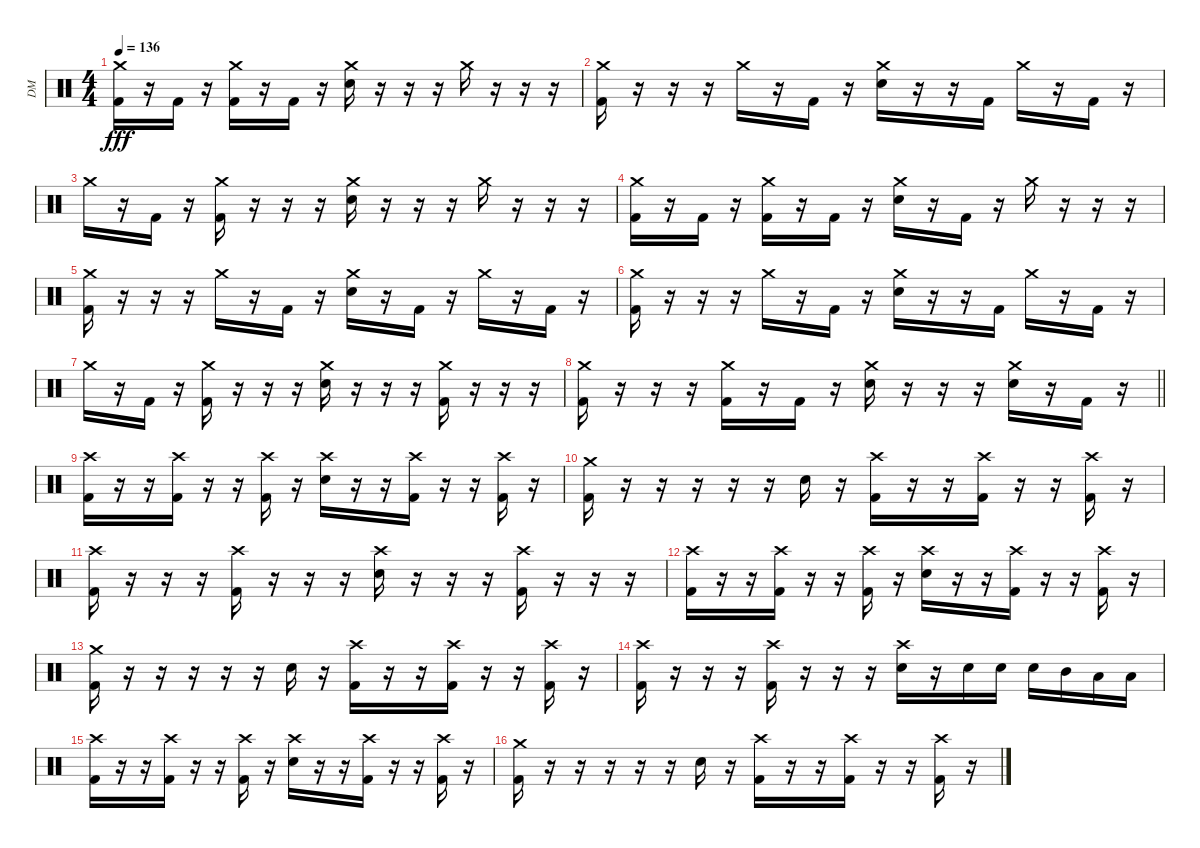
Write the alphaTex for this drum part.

\track ("DM" "DM") {instrument percussion}
\staff {score}
\articulation defaults
\ts (4 4)
\tempo 136
\clef neutral
\ks c
("Crash medium (hit)" "Kick (hit) 2").16{dy fff} r.16 "Kick (hit) 2".16 r.16 ("Crash medium (hit)" "Kick (hit) 2").16 r.16 "Kick (hit) 2".16 r.16 ("Crash medium (hit)" "Electric Snare (hit)").16 r.16 r.16 r.16 "Crash medium (hit)".16 r.16 r.16 r.16 |
("Crash medium (hit)" "Kick (hit) 2").16 r.16 r.16 r.16 "Crash medium (hit)".16 r.16 "Kick (hit) 2".16 r.16 ("Crash medium (hit)" "Electric Snare (hit)").16 r.16 r.16 "Kick (hit) 2".16 "Crash medium (hit)".16 r.16 "Kick (hit) 2".16 r.16 |
"Crash medium (hit)".16 r.16 "Kick (hit) 2".16 r.16 ("Crash medium (hit)" "Kick (hit) 2").16 r.16 r.16 r.16 ("Crash medium (hit)" "Electric Snare (hit)").16 r.16 r.16 r.16 "Crash medium (hit)".16 r.16 r.16 r.16 |
("Crash medium (hit)" "Kick (hit) 2").16 r.16 "Kick (hit) 2".16 r.16 ("Crash medium (hit)" "Kick (hit) 2").16 r.16 "Kick (hit) 2".16 r.16 ("Crash medium (hit)" "Electric Snare (hit)").16 r.16 "Kick (hit) 2".16 r.16 "Crash medium (hit)".16 r.16 r.16 r.16 |
("Crash medium (hit)" "Kick (hit) 2").16 r.16 r.16 r.16 "Crash medium (hit)".16 r.16 "Kick (hit) 2".16 r.16 ("Crash medium (hit)" "Electric Snare (hit)").16 r.16 "Kick (hit) 2".16 r.16 "Crash medium (hit)".16 r.16 "Kick (hit) 2".16 r.16 |
("Crash medium (hit)" "Kick (hit) 2").16 r.16 r.16 r.16 "Crash medium (hit)".16 r.16 "Kick (hit) 2".16 r.16 ("Crash medium (hit)" "Electric Snare (hit)").16 r.16 r.16 "Kick (hit) 2".16 "Crash medium (hit)".16 r.16 "Kick (hit) 2".16 r.16 |
"Crash medium (hit)".16 r.16 "Kick (hit) 2".16 r.16 ("Crash medium (hit)" "Kick (hit) 2").16 r.16 r.16 r.16 ("Crash medium (hit)" "Electric Snare (hit)").16 r.16 r.16 r.16 ("Crash medium (hit)" "Kick (hit) 2").16 r.16 r.16 r.16 |
\barLineRight lightlight
("Crash medium (hit)" "Kick (hit) 2").16 r.16 r.16 r.16 ("Crash medium (hit)" "Kick (hit) 2").16 r.16 "Kick (hit) 2".16 r.16 ("Crash medium (hit)" "Electric Snare (hit)").16 r.16 r.16 r.16 ("Crash medium (hit)" "Electric Snare (hit)").16 r.16 "Kick (hit) 2".16 r.16 |
\section ("" "")
("Crash high (hit)" "Kick (hit) 2").16 r.16 r.16 ("Crash high (hit)" "Kick (hit) 2").16 r.16 r.16 ("Crash high (hit)" "Kick (hit) 2").16 r.16 ("Crash high (hit)" "Electric Snare (hit)").16 r.16 r.16 ("Crash high (hit)" "Kick (hit) 2").16 r.16 r.16 ("Crash high (hit)" "Kick (hit) 2").16 r.16 |
("Crash medium (hit)" "Kick (hit) 2").16 r.16 r.16 r.16 r.16 r.16 "Electric Snare (hit)".16 r.16 ("Crash high (hit)" "Kick (hit) 2").16 r.16 r.16 ("Crash high (hit)" "Kick (hit) 2").16 r.16 r.16 ("Crash high (hit)" "Kick (hit) 2").16 r.16 |
("Crash high (hit)" "Kick (hit) 2").16 r.16 r.16 r.16 ("Crash high (hit)" "Kick (hit) 2").16 r.16 r.16 r.16 ("Crash high (hit)" "Electric Snare (hit)").16 r.16 r.16 r.16 ("Crash high (hit)" "Kick (hit) 2").16 r.16 r.16 r.16 |
("Crash high (hit)" "Kick (hit) 2").16 r.16 r.16 ("Crash high (hit)" "Kick (hit) 2").16 r.16 r.16 ("Crash high (hit)" "Kick (hit) 2").16 r.16 ("Crash high (hit)" "Electric Snare (hit)").16 r.16 r.16 ("Crash high (hit)" "Kick (hit) 2").16 r.16 r.16 ("Crash high (hit)" "Kick (hit) 2").16 r.16 |
("Crash medium (hit)" "Kick (hit) 2").16 r.16 r.16 r.16 r.16 r.16 "Electric Snare (hit)".16 r.16 ("Crash high (hit)" "Kick (hit) 2").16 r.16 r.16 ("Crash high (hit)" "Kick (hit) 2").16 r.16 r.16 ("Crash high (hit)" "Kick (hit) 2").16 r.16 |
("Crash high (hit)" "Kick (hit) 2").16 r.16 r.16 r.16 ("Crash high (hit)" "Kick (hit) 2").16 r.16 r.16 r.16 ("Crash high (hit)" "Electric Snare (hit)").16 r.16 "Electric Snare (hit)".16 "Electric Snare (hit)".16 "Electric Snare (hit)".16 "Mid Tom (hit)".16 "Low Tom (hit)".16 "Low Tom (hit)".16 |
("Crash high (hit)" "Kick (hit) 2").16 r.16 r.16 ("Crash high (hit)" "Kick (hit) 2").16 r.16 r.16 ("Crash high (hit)" "Kick (hit) 2").16 r.16 ("Crash high (hit)" "Electric Snare (hit)").16 r.16 r.16 ("Crash high (hit)" "Kick (hit) 2").16 r.16 r.16 ("Crash high (hit)" "Kick (hit) 2").16 r.16 |
("Crash medium (hit)" "Kick (hit) 2").16 r.16 r.16 r.16 r.16 r.16 "Electric Snare (hit)".16 r.16 ("Crash high (hit)" "Kick (hit) 2").16 r.16 r.16 ("Crash high (hit)" "Kick (hit) 2").16 r.16 r.16 ("Crash high (hit)" "Kick (hit) 2").16 r.16
